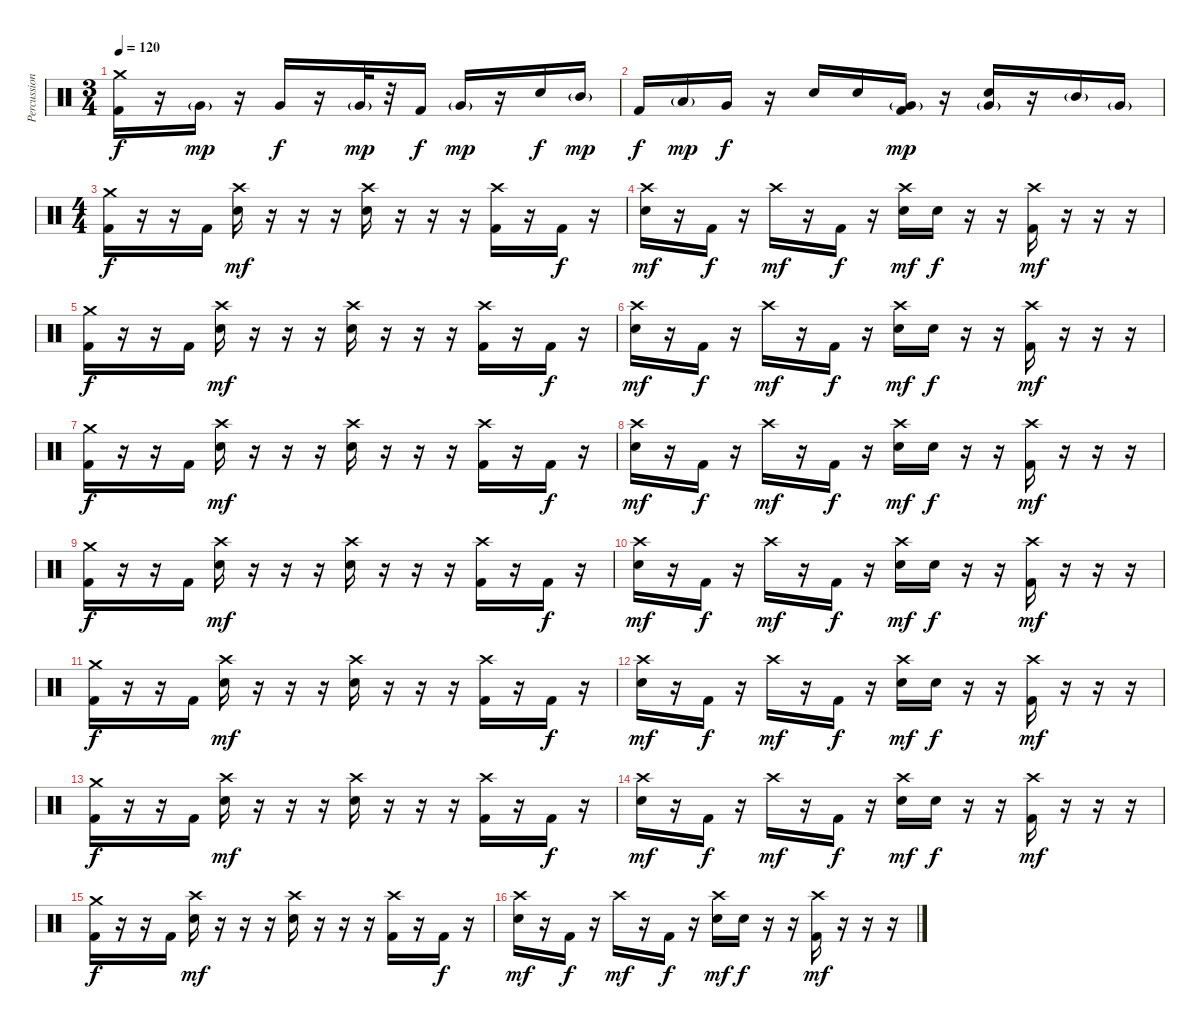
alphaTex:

\track ("Percussion" "Percussion") {instrument percussion}
\staff {score}
\articulation defaults
\ts (3 4)
\tempo 120
\clef neutral
\ks c
("Crash medium (hit)" "Kick (hit) 2").16{dy f} r.16 "Very Low Tom (hit)"{g}.16{dy mp} r.16 "Very Low Tom (hit)".16{dy f} r.16 "Very Low Tom (hit)"{g}.32{dy mp} r.32 "Kick (hit) 2".16{dy f} "Very Low Tom (hit)"{g}.16{dy mp} r.16 "Electric Snare (hit)".16{dy f} "Mid Tom (hit)"{g}.16{dy mp} |
"Kick (hit) 2".16{dy f} "Low Tom (hit)"{g}.16{dy mp} "Very Low Tom (hit)".16{dy f} r.16 "Electric Snare (hit)".16 "Electric Snare (hit)".16 ("Very Low Tom (hit)"{g} "Kick (hit) 2").16{dy mp} r.16 ("Very Low Tom (hit)"{g} "Electric Snare (hit)").16 r.16 "Mid Tom (hit)"{g}.16 "Very Low Tom (hit)"{g}.16 |
\ts (4 4)
("Crash medium (hit)" "Kick (hit) 2").16{dy f} r.16 r.16 "Kick (hit) 2".16 ("Crash high (hit)" "Electric Snare (hit)").16{dy mf} r.16 r.16 r.16 ("Crash high (hit)" "Electric Snare (hit)").16 r.16 r.16 r.16 ("Crash high (hit)" "Kick (hit) 2").16 r.16 "Kick (hit) 2".16{dy f} r.16 |
("Crash high (hit)" "Electric Snare (hit)").16{dy mf} r.16 "Kick (hit) 2".16{dy f} r.16 "Crash high (hit)".16{dy mf} r.16 "Kick (hit) 2".16{dy f} r.16 ("Crash high (hit)" "Electric Snare (hit)").16{dy mf} "Electric Snare (hit)".16{dy f} r.16 r.16 ("Crash high (hit)" "Kick (hit) 2").16{dy mf} r.16 r.16 r.16 |
("Crash medium (hit)" "Kick (hit) 2").16{dy f} r.16 r.16 "Kick (hit) 2".16 ("Crash high (hit)" "Electric Snare (hit)").16{dy mf} r.16 r.16 r.16 ("Crash high (hit)" "Electric Snare (hit)").16 r.16 r.16 r.16 ("Crash high (hit)" "Kick (hit) 2").16 r.16 "Kick (hit) 2".16{dy f} r.16 |
("Crash high (hit)" "Electric Snare (hit)").16{dy mf} r.16 "Kick (hit) 2".16{dy f} r.16 "Crash high (hit)".16{dy mf} r.16 "Kick (hit) 2".16{dy f} r.16 ("Crash high (hit)" "Electric Snare (hit)").16{dy mf} "Electric Snare (hit)".16{dy f} r.16 r.16 ("Crash high (hit)" "Kick (hit) 2").16{dy mf} r.16 r.16 r.16 |
("Crash medium (hit)" "Kick (hit) 2").16{dy f} r.16 r.16 "Kick (hit) 2".16 ("Crash high (hit)" "Electric Snare (hit)").16{dy mf} r.16 r.16 r.16 ("Crash high (hit)" "Electric Snare (hit)").16 r.16 r.16 r.16 ("Crash high (hit)" "Kick (hit) 2").16 r.16 "Kick (hit) 2".16{dy f} r.16 |
("Crash high (hit)" "Electric Snare (hit)").16{dy mf} r.16 "Kick (hit) 2".16{dy f} r.16 "Crash high (hit)".16{dy mf} r.16 "Kick (hit) 2".16{dy f} r.16 ("Crash high (hit)" "Electric Snare (hit)").16{dy mf} "Electric Snare (hit)".16{dy f} r.16 r.16 ("Crash high (hit)" "Kick (hit) 2").16{dy mf} r.16 r.16 r.16 |
("Crash medium (hit)" "Kick (hit) 2").16{dy f} r.16 r.16 "Kick (hit) 2".16 ("Crash high (hit)" "Electric Snare (hit)").16{dy mf} r.16 r.16 r.16 ("Crash high (hit)" "Electric Snare (hit)").16 r.16 r.16 r.16 ("Crash high (hit)" "Kick (hit) 2").16 r.16 "Kick (hit) 2".16{dy f} r.16 |
("Crash high (hit)" "Electric Snare (hit)").16{dy mf} r.16 "Kick (hit) 2".16{dy f} r.16 "Crash high (hit)".16{dy mf} r.16 "Kick (hit) 2".16{dy f} r.16 ("Crash high (hit)" "Electric Snare (hit)").16{dy mf} "Electric Snare (hit)".16{dy f} r.16 r.16 ("Crash high (hit)" "Kick (hit) 2").16{dy mf} r.16 r.16 r.16 |
("Crash medium (hit)" "Kick (hit) 2").16{dy f} r.16 r.16 "Kick (hit) 2".16 ("Crash high (hit)" "Electric Snare (hit)").16{dy mf} r.16 r.16 r.16 ("Crash high (hit)" "Electric Snare (hit)").16 r.16 r.16 r.16 ("Crash high (hit)" "Kick (hit) 2").16 r.16 "Kick (hit) 2".16{dy f} r.16 |
("Crash high (hit)" "Electric Snare (hit)").16{dy mf} r.16 "Kick (hit) 2".16{dy f} r.16 "Crash high (hit)".16{dy mf} r.16 "Kick (hit) 2".16{dy f} r.16 ("Crash high (hit)" "Electric Snare (hit)").16{dy mf} "Electric Snare (hit)".16{dy f} r.16 r.16 ("Crash high (hit)" "Kick (hit) 2").16{dy mf} r.16 r.16 r.16 |
("Crash medium (hit)" "Kick (hit) 2").16{dy f} r.16 r.16 "Kick (hit) 2".16 ("Crash high (hit)" "Electric Snare (hit)").16{dy mf} r.16 r.16 r.16 ("Crash high (hit)" "Electric Snare (hit)").16 r.16 r.16 r.16 ("Crash high (hit)" "Kick (hit) 2").16 r.16 "Kick (hit) 2".16{dy f} r.16 |
("Crash high (hit)" "Electric Snare (hit)").16{dy mf} r.16 "Kick (hit) 2".16{dy f} r.16 "Crash high (hit)".16{dy mf} r.16 "Kick (hit) 2".16{dy f} r.16 ("Crash high (hit)" "Electric Snare (hit)").16{dy mf} "Electric Snare (hit)".16{dy f} r.16 r.16 ("Crash high (hit)" "Kick (hit) 2").16{dy mf} r.16 r.16 r.16 |
("Crash medium (hit)" "Kick (hit) 2").16{dy f} r.16 r.16 "Kick (hit) 2".16 ("Crash high (hit)" "Electric Snare (hit)").16{dy mf} r.16 r.16 r.16 ("Crash high (hit)" "Electric Snare (hit)").16 r.16 r.16 r.16 ("Crash high (hit)" "Kick (hit) 2").16 r.16 "Kick (hit) 2".16{dy f} r.16 |
("Crash high (hit)" "Electric Snare (hit)").16{dy mf} r.16 "Kick (hit) 2".16{dy f} r.16 "Crash high (hit)".16{dy mf} r.16 "Kick (hit) 2".16{dy f} r.16 ("Crash high (hit)" "Electric Snare (hit)").16{dy mf} "Electric Snare (hit)".16{dy f} r.16 r.16 ("Crash high (hit)" "Kick (hit) 2").16{dy mf} r.16 r.16 r.16
